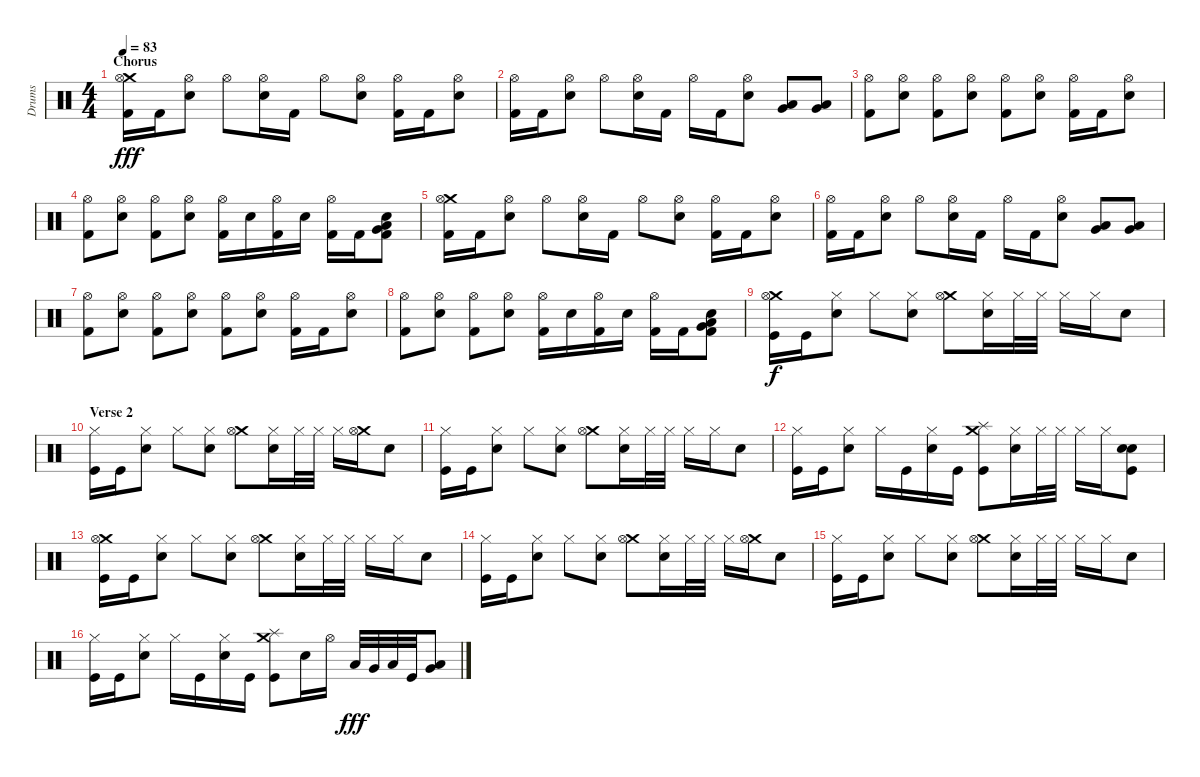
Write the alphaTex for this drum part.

\track ("Drums" "Drums") {instrument percussion}
\staff {score}
\articulation defaults
\ts (4 4)
\section ("" "Chorus")
\tempo 83
\clef neutral
\ks c
("Crash medium (hit)" "Hi-Hat (open)" "Kick (hit) 2").16{dy fff} "Kick (hit) 2".16 ("Hi-Hat (open)" "Electric Snare (hit)").8 "Hi-Hat (open)".8 ("Hi-Hat (open)" "Electric Snare (hit)").16 "Kick (hit) 2".16 "Hi-Hat (open)".8 ("Hi-Hat (open)" "Electric Snare (hit)").8 ("Hi-Hat (open)" "Kick (hit) 2").16 "Kick (hit) 2".16 ("Hi-Hat (open)" "Electric Snare (hit)").8 |
("Hi-Hat (open)" "Kick (hit) 2").16 "Kick (hit) 2".16 ("Hi-Hat (open)" "Electric Snare (hit)").8 "Hi-Hat (open)".8 ("Hi-Hat (open)" "Electric Snare (hit)").16 "Kick (hit) 2".16 "Hi-Hat (open)".16 "Kick (hit) 2".16 ("Hi-Hat (open)" "Electric Snare (hit)").8 ("Very Low Tom (hit)" "Low Tom (hit)").8 ("Low Floor Tom (hit)" "Very Low Tom (hit)").8 |
("Hi-Hat (open)" "Kick (hit) 2").8 ("Hi-Hat (open)" "Electric Snare (hit)").8 ("Hi-Hat (open)" "Kick (hit) 2").8 ("Hi-Hat (open)" "Electric Snare (hit)").8 ("Hi-Hat (open)" "Kick (hit) 2").8 ("Hi-Hat (open)" "Electric Snare (hit)").8 ("Hi-Hat (open)" "Kick (hit) 2").16 "Kick (hit) 2".16 ("Hi-Hat (open)" "Electric Snare (hit)").8 |
("Hi-Hat (open)" "Kick (hit) 2").8 ("Hi-Hat (open)" "Electric Snare (hit)").8 ("Hi-Hat (open)" "Kick (hit) 2").8 ("Hi-Hat (open)" "Electric Snare (hit)").8 ("Hi-Hat (open)" "Kick (hit) 2").16 "Electric Snare (hit)".16 ("Hi-Hat (open)" "Kick (hit) 2").16 "Electric Snare (hit)".16 ("Hi-Hat (open)" "Kick (hit) 2").16 "Kick (hit) 2".16 ("Electric Snare (hit)" "Very Low Tom (hit)" "Low Tom (hit)" "Kick (hit) 2").8 |
("Crash medium (hit)" "Hi-Hat (open)" "Kick (hit) 2").16 "Kick (hit) 2".16 ("Hi-Hat (open)" "Electric Snare (hit)").8 "Hi-Hat (open)".8 ("Hi-Hat (open)" "Electric Snare (hit)").16 "Kick (hit) 2".16 "Hi-Hat (open)".8 ("Hi-Hat (open)" "Electric Snare (hit)").8 ("Hi-Hat (open)" "Kick (hit) 2").16 "Kick (hit) 2".16 ("Hi-Hat (open)" "Electric Snare (hit)").8 |
("Hi-Hat (open)" "Kick (hit) 2").16 "Kick (hit) 2".16 ("Hi-Hat (open)" "Electric Snare (hit)").8 "Hi-Hat (open)".8 ("Hi-Hat (open)" "Electric Snare (hit)").16 "Kick (hit) 2".16 "Hi-Hat (open)".16 "Kick (hit) 2".16 ("Hi-Hat (open)" "Electric Snare (hit)").8 ("Very Low Tom (hit)" "Low Tom (hit)").8 ("Low Floor Tom (hit)" "Very Low Tom (hit)").8 |
("Hi-Hat (open)" "Kick (hit) 2").8 ("Hi-Hat (open)" "Electric Snare (hit)").8 ("Hi-Hat (open)" "Kick (hit) 2").8 ("Hi-Hat (open)" "Electric Snare (hit)").8 ("Hi-Hat (open)" "Kick (hit) 2").8 ("Hi-Hat (open)" "Electric Snare (hit)").8 ("Hi-Hat (open)" "Kick (hit) 2").16 "Kick (hit) 2".16 ("Hi-Hat (open)" "Electric Snare (hit)").8 |
("Hi-Hat (open)" "Kick (hit) 2").8 ("Hi-Hat (open)" "Electric Snare (hit)").8 ("Hi-Hat (open)" "Kick (hit) 2").8 ("Hi-Hat (open)" "Electric Snare (hit)").8 ("Hi-Hat (open)" "Kick (hit) 2").16 "Electric Snare (hit)".16 ("Hi-Hat (open)" "Kick (hit) 2").16 "Electric Snare (hit)".16 ("Hi-Hat (open)" "Kick (hit) 2").16 "Kick (hit) 2".16 ("Electric Snare (hit)" "Very Low Tom (hit)" "Low Tom (hit)" "Kick (hit) 2").8 |
("Crash medium (hit)" "Hi-Hat (open)" "Kick (hit)").16{dy f} "Kick (hit)".16 ("Hi-Hat (closed)" "Electric Snare (hit)").8 "Hi-Hat (closed)".8 ("Hi-Hat (closed)" "Electric Snare (hit)").8 ("Crash medium (hit)" "Hi-Hat (open)").8 ("Hi-Hat (closed)" "Electric Snare (hit)").16 "Hi-Hat (closed)".32 "Hi-Hat (closed)".32 "Hi-Hat (closed)".16 "Hi-Hat (closed)".16 "Electric Snare (hit)".8 |
\section ("" "Verse 2")
("Hi-Hat (closed)" "Kick (hit)").16 "Kick (hit)".16 ("Hi-Hat (closed)" "Electric Snare (hit)").8 "Hi-Hat (closed)".8 ("Hi-Hat (closed)" "Electric Snare (hit)").8 ("Crash medium (hit)" "Hi-Hat (open)").8 ("Hi-Hat (closed)" "Electric Snare (hit)").16 "Hi-Hat (closed)".32 "Hi-Hat (closed)".32 "Hi-Hat (closed)".16 ("Crash medium (hit)" "Hi-Hat (open)").16 "Electric Snare (hit)".8 |
("Hi-Hat (closed)" "Kick (hit)").16 "Kick (hit)".16 ("Hi-Hat (closed)" "Electric Snare (hit)").8 "Hi-Hat (closed)".8 ("Hi-Hat (closed)" "Electric Snare (hit)").8 ("Crash medium (hit)" "Hi-Hat (open)").8 ("Hi-Hat (closed)" "Electric Snare (hit)").16 "Hi-Hat (closed)".32 "Hi-Hat (closed)".32 "Hi-Hat (closed)".16 "Hi-Hat (closed)".16 "Electric Snare (hit)".8 |
("Hi-Hat (closed)" "Kick (hit)").16 "Kick (hit)".16 ("Hi-Hat (closed)" "Electric Snare (hit)").8 "Hi-Hat (closed)".16 "Kick (hit)".16 ("Hi-Hat (closed)" "Electric Snare (hit)").16 "Kick (hit)".16 ("Crash medium (hit)" "Splash (hit)" "Kick (hit)").8 ("Hi-Hat (closed)" "Electric Snare (hit)").16 "Hi-Hat (closed)".32 "Hi-Hat (closed)".32 "Hi-Hat (closed)".16 "Hi-Hat (closed)".16 ("Electric Snare (hit)" "Electric Snare (hit)" "Kick (hit)").8 |
("Crash medium (hit)" "Hi-Hat (open)" "Kick (hit)").16 "Kick (hit)".16 ("Hi-Hat (closed)" "Electric Snare (hit)").8 "Hi-Hat (closed)".8 ("Hi-Hat (closed)" "Electric Snare (hit)").8 ("Crash medium (hit)" "Hi-Hat (open)").8 ("Hi-Hat (closed)" "Electric Snare (hit)").16 "Hi-Hat (closed)".32 "Hi-Hat (closed)".32 "Hi-Hat (closed)".16 "Hi-Hat (closed)".16 "Electric Snare (hit)".8 |
("Hi-Hat (closed)" "Kick (hit)").16 "Kick (hit)".16 ("Hi-Hat (closed)" "Electric Snare (hit)").8 "Hi-Hat (closed)".8 ("Hi-Hat (closed)" "Electric Snare (hit)").8 ("Crash medium (hit)" "Hi-Hat (open)").8 ("Hi-Hat (closed)" "Electric Snare (hit)").16 "Hi-Hat (closed)".32 "Hi-Hat (closed)".32 "Hi-Hat (closed)".16 ("Crash medium (hit)" "Hi-Hat (open)").16 "Electric Snare (hit)".8 |
("Hi-Hat (closed)" "Kick (hit)").16 "Kick (hit)".16 ("Hi-Hat (closed)" "Electric Snare (hit)").8 "Hi-Hat (closed)".8 ("Hi-Hat (closed)" "Electric Snare (hit)").8 ("Crash medium (hit)" "Hi-Hat (open)").8 ("Hi-Hat (closed)" "Electric Snare (hit)").16 "Hi-Hat (closed)".32 "Hi-Hat (closed)".32 "Hi-Hat (closed)".16 "Hi-Hat (closed)".16 "Electric Snare (hit)".8 |
("Hi-Hat (closed)" "Kick (hit)").16 "Kick (hit)".16 ("Hi-Hat (closed)" "Electric Snare (hit)").8 "Hi-Hat (closed)".16 "Kick (hit)".16 ("Hi-Hat (closed)" "Electric Snare (hit)").16 "Kick (hit)".16 ("Crash medium (hit)" "Splash (hit)" "Kick (hit)").8 "Electric Snare (hit)".16 "Hi-Hat (open)".16 "Low Tom (hit)".32{dy fff} "Very Low Tom (hit)".32 "Low Floor Tom (hit)".32 "Kick (hit)".32 ("Low Tom (hit)" "Very Low Tom (hit)").8
